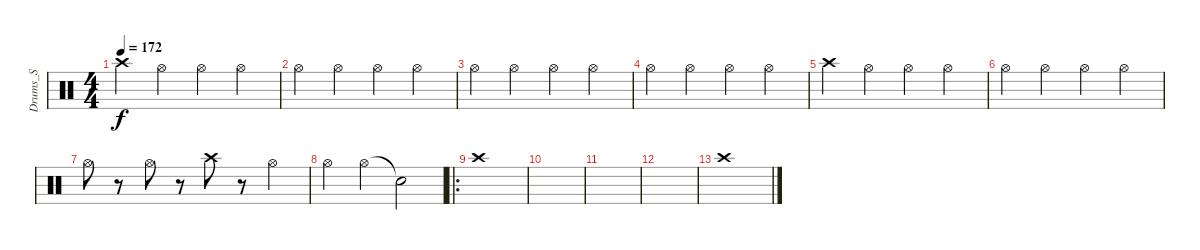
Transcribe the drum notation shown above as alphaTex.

\track ("Drums_S" "Drums_S") {instrument percussion}
\staff {score}
\articulation defaults
\ts (4 4)
\tempo 172
\clef neutral
\ks c "Crash high (hit)".4{dy f} "Hi-Hat (open)".4 "Hi-Hat (open)".4 "Hi-Hat (open)".4
|
"Hi-Hat (open)".4 "Hi-Hat (open)".4 "Hi-Hat (open)".4 "Hi-Hat (open)".4 |
"Hi-Hat (open)".4 "Hi-Hat (open)".4 "Hi-Hat (open)".4 "Hi-Hat (open)".4 |
"Hi-Hat (open)".4 "Hi-Hat (open)".4 "Hi-Hat (open)".4 "Hi-Hat (open)".4 |
"Crash high (hit)".4 "Hi-Hat (open)".4 "Hi-Hat (open)".4 "Hi-Hat (open)".4 |
"Hi-Hat (open)".4 "Hi-Hat (open)".4 "Hi-Hat (open)".4 "Hi-Hat (open)".4 |
"Hi-Hat (open)".8 r.8 "Hi-Hat (open)".8 r.8 "Crash high (hit)".8 r.8 "Hi-Hat (open)".4 |
"Hi-Hat (open)".4 "Hi-Hat (open)".4 "Snare (hit)"{t}.2 |
\ro "Crash high (hit)".1
|
|
|
|
"Crash high (hit)".1
